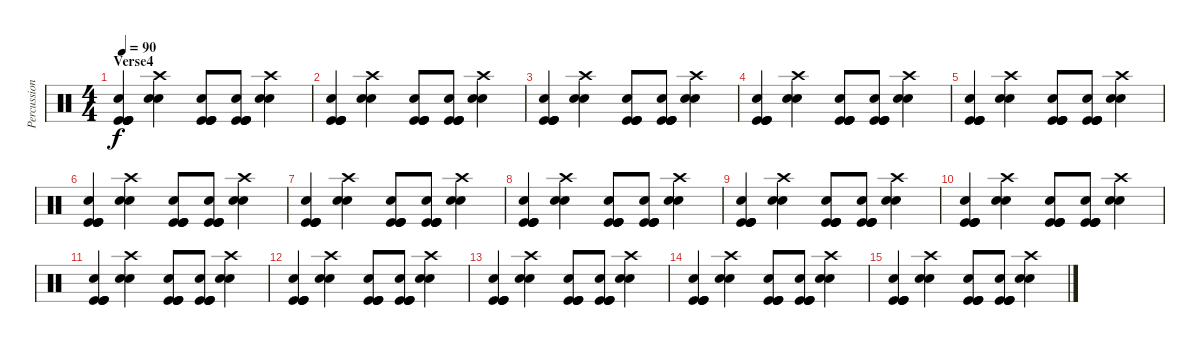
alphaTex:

\track ("Percussion" "Percussion") {instrument percussion}
\staff {score}
\articulation defaults
\ts (4 4)
\section ("" "Verse4")
\tempo 90
\clef neutral
\ks c
("Electric Snare (hit)" "Kick (hit)" "Kick (hit)" "Kick (hit)" "Kick (hit)").4{dy f} ("Electric Snare (hit)" "Electric Snare (hit)" "Crash high (hit)").4 ("Electric Snare (hit)" "Kick (hit)" "Kick (hit)" "Kick (hit)" "Kick (hit)").8 ("Electric Snare (hit)" "Kick (hit)" "Kick (hit)" "Kick (hit)" "Kick (hit)").8 ("Electric Snare (hit)" "Electric Snare (hit)" "Crash high (hit)").4 |
("Electric Snare (hit)" "Kick (hit)" "Kick (hit)" "Kick (hit)" "Kick (hit)").4 ("Electric Snare (hit)" "Electric Snare (hit)" "Crash high (hit)").4 ("Electric Snare (hit)" "Kick (hit)" "Kick (hit)" "Kick (hit)" "Kick (hit)").8 ("Electric Snare (hit)" "Kick (hit)" "Kick (hit)" "Kick (hit)" "Kick (hit)").8 ("Electric Snare (hit)" "Electric Snare (hit)" "Crash high (hit)").4 |
("Electric Snare (hit)" "Kick (hit)" "Kick (hit)" "Kick (hit)" "Kick (hit)").4 ("Electric Snare (hit)" "Electric Snare (hit)" "Crash high (hit)").4 ("Electric Snare (hit)" "Kick (hit)" "Kick (hit)" "Kick (hit)" "Kick (hit)").8 ("Electric Snare (hit)" "Kick (hit)" "Kick (hit)" "Kick (hit)" "Kick (hit)").8 ("Electric Snare (hit)" "Electric Snare (hit)" "Crash high (hit)").4 |
("Electric Snare (hit)" "Kick (hit)" "Kick (hit)" "Kick (hit)" "Kick (hit)").4 ("Electric Snare (hit)" "Electric Snare (hit)" "Crash high (hit)").4 ("Electric Snare (hit)" "Kick (hit)" "Kick (hit)" "Kick (hit)" "Kick (hit)").8 ("Electric Snare (hit)" "Kick (hit)" "Kick (hit)" "Kick (hit)" "Kick (hit)").8 ("Electric Snare (hit)" "Electric Snare (hit)" "Crash high (hit)").4 |
("Electric Snare (hit)" "Kick (hit)" "Kick (hit)" "Kick (hit)" "Kick (hit)").4 ("Electric Snare (hit)" "Electric Snare (hit)" "Crash high (hit)").4 ("Electric Snare (hit)" "Kick (hit)" "Kick (hit)" "Kick (hit)" "Kick (hit)").8 ("Electric Snare (hit)" "Kick (hit)" "Kick (hit)" "Kick (hit)" "Kick (hit)").8 ("Electric Snare (hit)" "Electric Snare (hit)" "Crash high (hit)").4 |
("Electric Snare (hit)" "Kick (hit)" "Kick (hit)" "Kick (hit)" "Kick (hit)").4 ("Electric Snare (hit)" "Electric Snare (hit)" "Crash high (hit)").4 ("Electric Snare (hit)" "Kick (hit)" "Kick (hit)" "Kick (hit)" "Kick (hit)").8 ("Electric Snare (hit)" "Kick (hit)" "Kick (hit)" "Kick (hit)" "Kick (hit)").8 ("Electric Snare (hit)" "Electric Snare (hit)" "Crash high (hit)").4 |
("Electric Snare (hit)" "Kick (hit)" "Kick (hit)" "Kick (hit)" "Kick (hit)").4 ("Electric Snare (hit)" "Electric Snare (hit)" "Crash high (hit)").4 ("Electric Snare (hit)" "Kick (hit)" "Kick (hit)" "Kick (hit)" "Kick (hit)").8 ("Electric Snare (hit)" "Kick (hit)" "Kick (hit)" "Kick (hit)" "Kick (hit)").8 ("Electric Snare (hit)" "Electric Snare (hit)" "Crash high (hit)").4 |
("Electric Snare (hit)" "Kick (hit)" "Kick (hit)" "Kick (hit)" "Kick (hit)").4 ("Electric Snare (hit)" "Electric Snare (hit)" "Crash high (hit)").4 ("Electric Snare (hit)" "Kick (hit)" "Kick (hit)" "Kick (hit)" "Kick (hit)").8 ("Electric Snare (hit)" "Kick (hit)" "Kick (hit)" "Kick (hit)" "Kick (hit)").8 ("Electric Snare (hit)" "Electric Snare (hit)" "Crash high (hit)").4 |
("Electric Snare (hit)" "Kick (hit)" "Kick (hit)" "Kick (hit)" "Kick (hit)").4 ("Electric Snare (hit)" "Electric Snare (hit)" "Crash high (hit)").4 ("Electric Snare (hit)" "Kick (hit)" "Kick (hit)" "Kick (hit)" "Kick (hit)").8 ("Electric Snare (hit)" "Kick (hit)" "Kick (hit)" "Kick (hit)" "Kick (hit)").8 ("Electric Snare (hit)" "Electric Snare (hit)" "Crash high (hit)").4 |
("Electric Snare (hit)" "Kick (hit)" "Kick (hit)" "Kick (hit)" "Kick (hit)").4 ("Electric Snare (hit)" "Electric Snare (hit)" "Crash high (hit)").4 ("Electric Snare (hit)" "Kick (hit)" "Kick (hit)" "Kick (hit)" "Kick (hit)").8 ("Electric Snare (hit)" "Kick (hit)" "Kick (hit)" "Kick (hit)" "Kick (hit)").8 ("Electric Snare (hit)" "Electric Snare (hit)" "Crash high (hit)").4 |
("Electric Snare (hit)" "Kick (hit)" "Kick (hit)" "Kick (hit)" "Kick (hit)").4 ("Electric Snare (hit)" "Electric Snare (hit)" "Crash high (hit)").4 ("Electric Snare (hit)" "Kick (hit)" "Kick (hit)" "Kick (hit)" "Kick (hit)").8 ("Electric Snare (hit)" "Kick (hit)" "Kick (hit)" "Kick (hit)" "Kick (hit)").8 ("Electric Snare (hit)" "Electric Snare (hit)" "Crash high (hit)").4 |
("Electric Snare (hit)" "Kick (hit)" "Kick (hit)" "Kick (hit)" "Kick (hit)").4 ("Electric Snare (hit)" "Electric Snare (hit)" "Crash high (hit)").4 ("Electric Snare (hit)" "Kick (hit)" "Kick (hit)" "Kick (hit)" "Kick (hit)").8 ("Electric Snare (hit)" "Kick (hit)" "Kick (hit)" "Kick (hit)" "Kick (hit)").8 ("Electric Snare (hit)" "Electric Snare (hit)" "Crash high (hit)").4 |
("Electric Snare (hit)" "Kick (hit)" "Kick (hit)" "Kick (hit)" "Kick (hit)").4 ("Electric Snare (hit)" "Electric Snare (hit)" "Crash high (hit)").4 ("Electric Snare (hit)" "Kick (hit)" "Kick (hit)" "Kick (hit)" "Kick (hit)").8 ("Electric Snare (hit)" "Kick (hit)" "Kick (hit)" "Kick (hit)" "Kick (hit)").8 ("Electric Snare (hit)" "Electric Snare (hit)" "Crash high (hit)").4 |
("Electric Snare (hit)" "Kick (hit)" "Kick (hit)" "Kick (hit)" "Kick (hit)").4 ("Electric Snare (hit)" "Electric Snare (hit)" "Crash high (hit)").4 ("Electric Snare (hit)" "Kick (hit)" "Kick (hit)" "Kick (hit)" "Kick (hit)").8 ("Electric Snare (hit)" "Kick (hit)" "Kick (hit)" "Kick (hit)" "Kick (hit)").8 ("Electric Snare (hit)" "Electric Snare (hit)" "Crash high (hit)").4 |
("Electric Snare (hit)" "Kick (hit)" "Kick (hit)" "Kick (hit)" "Kick (hit)").4 ("Electric Snare (hit)" "Electric Snare (hit)" "Crash high (hit)").4 ("Electric Snare (hit)" "Kick (hit)" "Kick (hit)" "Kick (hit)" "Kick (hit)").8 ("Electric Snare (hit)" "Kick (hit)" "Kick (hit)" "Kick (hit)" "Kick (hit)").8 ("Electric Snare (hit)" "Electric Snare (hit)" "Crash high (hit)").4
